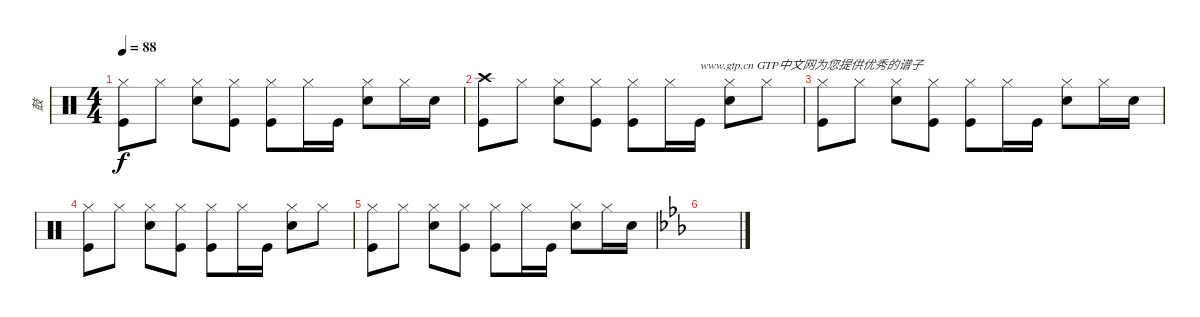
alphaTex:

\track ("鼓" "鼓") {instrument percussion}
\staff {score}
\articulation defaults
\ts (4 4)
\tempo 88
\clef neutral
\ks c
("Hi-Hat (closed)" "Kick (hit)").8{dy f} "Hi-Hat (closed)".8 ("Hi-Hat (closed)" "Snare (hit) 2").8 ("Hi-Hat (closed)" "Kick (hit)").8 ("Hi-Hat (closed)" "Kick (hit)").8 "Hi-Hat (closed)".16 "Kick (hit)".16 ("Hi-Hat (closed)" "Snare (hit) 2").8 "Hi-Hat (closed)".16 "Snare (hit) 2".16 |
("Crash high (hit)" "Kick (hit)").8 "Hi-Hat (closed)".8 ("Hi-Hat (closed)" "Snare (hit) 2").8 ("Hi-Hat (closed)" "Kick (hit)").8 ("Hi-Hat (closed)" "Kick (hit)").8 "Hi-Hat (closed)".16 "Kick (hit)".16{txt "www.gtp.cn GTP中文网为您提供优秀的谱子"} ("Hi-Hat (closed)" "Snare (hit) 2").8 "Hi-Hat (closed)".8 |
("Hi-Hat (closed)" "Kick (hit)").8 "Hi-Hat (closed)".8 ("Hi-Hat (closed)" "Snare (hit) 2").8 ("Hi-Hat (closed)" "Kick (hit)").8 ("Hi-Hat (closed)" "Kick (hit)").8 "Hi-Hat (closed)".16 "Kick (hit)".16 ("Hi-Hat (closed)" "Snare (hit) 2").8 "Hi-Hat (closed)".16 "Snare (hit) 2".16 |
("Hi-Hat (closed)" "Kick (hit)").8 "Hi-Hat (closed)".8 ("Hi-Hat (closed)" "Snare (hit) 2").8 ("Hi-Hat (closed)" "Kick (hit)").8 ("Hi-Hat (closed)" "Kick (hit)").8 "Hi-Hat (closed)".16 "Kick (hit)".16 ("Hi-Hat (closed)" "Snare (hit) 2").8 "Hi-Hat (closed)".8 |
("Hi-Hat (closed)" "Kick (hit)").8 "Hi-Hat (closed)".8 ("Hi-Hat (closed)" "Snare (hit) 2").8 ("Hi-Hat (closed)" "Kick (hit)").8 ("Hi-Hat (closed)" "Kick (hit)").8 "Hi-Hat (closed)".16 "Kick (hit)".16 ("Hi-Hat (closed)" "Snare (hit) 2").8 "Hi-Hat (closed)".16 "Snare (hit) 2".16 |
\ks eb
